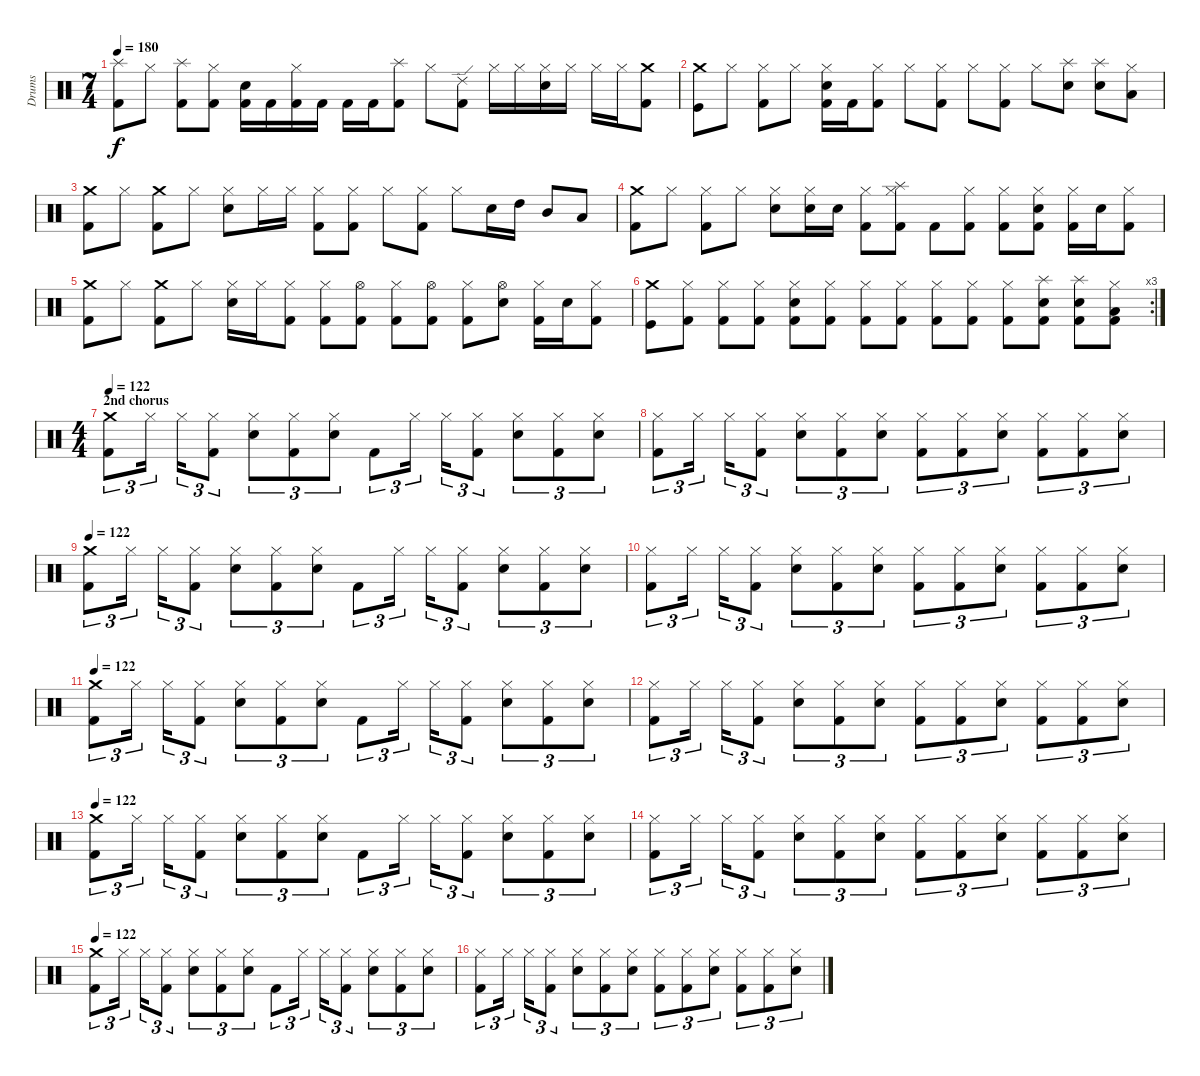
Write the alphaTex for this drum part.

\track ("Drums" "Drums") {instrument percussion}
\staff {score}
\articulation defaults
\ts (7 4)
\tempo 180
\clef neutral
\ks c
("Splash (hit)" "Kick (hit) 2").8{dy f} "Hi-Hat (closed)".8 ("Splash (hit)" "Kick (hit) 2").8 ("Hi-Hat (closed)" "Kick (hit) 2").8 ("Electric Snare (hit)" "Kick (hit) 2").16 "Kick (hit) 2".16 ("Hi-Hat (closed)" "Kick (hit) 2").16 "Kick (hit) 2".16 "Kick (hit) 2".16 "Kick (hit) 2".16 ("Splash (hit)" "Kick (hit) 2").8 "Hi-Hat (closed)".8 ("Ride (edge) 2" "Kick (hit) 2").8 "Hi-Hat (closed)".16 "Hi-Hat (closed)".16 ("Hi-Hat (closed)" "Electric Snare (hit)").16 "Hi-Hat (closed)".16 "Hi-Hat (closed)".16 "Hi-Hat (closed)".16 ("Crash medium (hit)" "Kick (hit) 2").8 |
("Crash medium (hit)" "Kick (hit)").8 "Hi-Hat (closed)".8 ("Hi-Hat (closed)" "Kick (hit) 2").8 "Hi-Hat (closed)".8 ("Hi-Hat (closed)" "Electric Snare (hit)" "Kick (hit) 2").16 "Kick (hit) 2".16 ("Hi-Hat (closed)" "Kick (hit) 2").8 "Hi-Hat (closed)".8 ("Hi-Hat (closed)" "Kick (hit) 2").8 "Hi-Hat (closed)".8 ("Hi-Hat (closed)" "Kick (hit) 2").8 "Hi-Hat (closed)".8 ("Splash (hit)" "Electric Snare (hit)").8 ("Splash (hit)" "Electric Snare (hit)").8 ("Hi-Hat (closed)" "Low Floor Tom (hit)").8 |
("Crash medium (hit)" "Kick (hit) 2").8 "Hi-Hat (closed)".8 ("Crash medium (hit)" "Kick (hit) 2").8 "Hi-Hat (closed)".8 ("Hi-Hat (closed)" "Electric Snare (hit)").8 "Hi-Hat (closed)".16 "Hi-Hat (closed)".16 ("Hi-Hat (closed)" "Kick (hit) 2").8 ("Hi-Hat (closed)" "Kick (hit) 2").8 "Hi-Hat (closed)".8 ("Hi-Hat (closed)" "Kick (hit) 2").8 "Hi-Hat (closed)".8 "Electric Snare (hit)".16 "High Tom (hit)".16 "Mid Tom (hit)".8 "Low Tom (hit)".8 |
("Crash medium (hit)" "Kick (hit) 2").8 "Hi-Hat (closed)".8 ("Hi-Hat (closed)" "Kick (hit) 2").8 "Hi-Hat (closed)".8 ("Hi-Hat (closed)" "Electric Snare (hit)").8 ("Hi-Hat (closed)" "Snare (hit) 2").16 "Electric Snare (hit)".16 ("Hi-Hat (closed)" "Kick (hit) 2").8 ("Hi-Hat (closed)" "Kick (hit) 2" "Splash (hit)").8 "Kick (hit) 2".8 ("Hi-Hat (closed)" "Kick (hit) 2").8 ("Hi-Hat (closed)" "Kick (hit) 2").8 ("Hi-Hat (closed)" "Electric Snare (hit)" "Kick (hit) 2").8 ("Hi-Hat (closed)" "Kick (hit) 2").16 "Electric Snare (hit)".16 ("Hi-Hat (closed)" "Kick (hit) 2").8 |
("Crash medium (hit)" "Kick (hit) 2").8 "Hi-Hat (closed)".8 ("Crash medium (hit)" "Kick (hit) 2").8 "Hi-Hat (closed)".8 ("Hi-Hat (closed)" "Electric Snare (hit)").16 "Hi-Hat (closed)".16 ("Hi-Hat (closed)" "Kick (hit) 2").8 ("Hi-Hat (closed)" "Kick (hit) 2").8 ("Hi-Hat (open)" "Kick (hit) 2").8 ("Hi-Hat (closed)" "Kick (hit) 2").8 ("Hi-Hat (open)" "Kick (hit) 2").8 ("Hi-Hat (closed)" "Kick (hit) 2").8 ("Hi-Hat (open)" "Electric Snare (hit)").8 ("Hi-Hat (closed)" "Kick (hit) 2").16 "Electric Snare (hit)".16 ("Hi-Hat (closed)" "Kick (hit) 2").8 |
\rc 3
("Crash medium (hit)" "Kick (hit)").8 ("Hi-Hat (closed)" "Kick (hit) 2").8 ("Hi-Hat (closed)" "Kick (hit) 2").8 ("Hi-Hat (closed)" "Kick (hit) 2").8 ("Hi-Hat (closed)" "Electric Snare (hit)" "Kick (hit) 2").8 ("Hi-Hat (closed)" "Kick (hit) 2").8 ("Hi-Hat (closed)" "Kick (hit) 2").8 ("Hi-Hat (closed)" "Kick (hit) 2").8 ("Hi-Hat (closed)" "Kick (hit) 2").8 ("Hi-Hat (closed)" "Kick (hit) 2").8 ("Hi-Hat (closed)" "Kick (hit) 2").8 ("Splash (hit)" "Electric Snare (hit)" "Kick (hit) 2").8 ("Splash (hit)" "Electric Snare (hit)" "Kick (hit) 2").8 ("Hi-Hat (closed)" "Low Floor Tom (hit)" "Kick (hit) 2").8 |
\ts (4 4)
\section ("" "2nd chorus")
\tempo 122
("Kick (hit) 2" "Crash medium (hit)").8{tu (3 2)} "Hi-Hat (closed)".16{tu (3 2)} "Hi-Hat (closed)".16{tu (3 2)} ("Hi-Hat (closed)" "Kick (hit) 2").8{tu (3 2)} ("Hi-Hat (closed)" "Electric Snare (hit)").8{tu (3 2)} ("Hi-Hat (closed)" "Kick (hit) 2").8{tu (3 2)} ("Hi-Hat (closed)" "Electric Snare (hit)").8{tu (3 2)} "Kick (hit) 2".8{tu (3 2)} "Hi-Hat (closed)".16{tu (3 2)} "Hi-Hat (closed)".16{tu (3 2)} ("Hi-Hat (closed)" "Kick (hit) 2").8{tu (3 2)} ("Hi-Hat (closed)" "Electric Snare (hit)").8{tu (3 2)} ("Hi-Hat (closed)" "Kick (hit) 2").8{tu (3 2)} ("Hi-Hat (closed)" "Electric Snare (hit)").8{tu (3 2)} |
("Hi-Hat (closed)" "Kick (hit) 2").8{tu (3 2)} "Hi-Hat (closed)".16{tu (3 2)} "Hi-Hat (closed)".16{tu (3 2)} ("Hi-Hat (closed)" "Kick (hit) 2").8{tu (3 2)} ("Hi-Hat (closed)" "Electric Snare (hit)").8{tu (3 2)} ("Hi-Hat (closed)" "Kick (hit) 2").8{tu (3 2)} ("Hi-Hat (closed)" "Electric Snare (hit)").8{tu (3 2)} ("Hi-Hat (closed)" "Kick (hit) 2").8{tu (3 2)} ("Hi-Hat (closed)" "Kick (hit) 2").8{tu (3 2)} ("Hi-Hat (closed)" "Electric Snare (hit)").8{tu (3 2)} ("Hi-Hat (closed)" "Kick (hit) 2").8{tu (3 2)} ("Hi-Hat (closed)" "Kick (hit) 2").8{tu (3 2)} ("Hi-Hat (closed)" "Electric Snare (hit)").8{tu (3 2)} |
\tempo 122
("Kick (hit) 2" "Crash medium (hit)").8{tu (3 2)} "Hi-Hat (closed)".16{tu (3 2)} "Hi-Hat (closed)".16{tu (3 2)} ("Hi-Hat (closed)" "Kick (hit) 2").8{tu (3 2)} ("Hi-Hat (closed)" "Electric Snare (hit)").8{tu (3 2)} ("Hi-Hat (closed)" "Kick (hit) 2").8{tu (3 2)} ("Hi-Hat (closed)" "Electric Snare (hit)").8{tu (3 2)} "Kick (hit) 2".8{tu (3 2)} "Hi-Hat (closed)".16{tu (3 2)} "Hi-Hat (closed)".16{tu (3 2)} ("Hi-Hat (closed)" "Kick (hit) 2").8{tu (3 2)} ("Hi-Hat (closed)" "Electric Snare (hit)").8{tu (3 2)} ("Hi-Hat (closed)" "Kick (hit) 2").8{tu (3 2)} ("Hi-Hat (closed)" "Electric Snare (hit)").8{tu (3 2)} |
("Hi-Hat (closed)" "Kick (hit) 2").8{tu (3 2)} "Hi-Hat (closed)".16{tu (3 2)} "Hi-Hat (closed)".16{tu (3 2)} ("Hi-Hat (closed)" "Kick (hit) 2").8{tu (3 2)} ("Hi-Hat (closed)" "Electric Snare (hit)").8{tu (3 2)} ("Hi-Hat (closed)" "Kick (hit) 2").8{tu (3 2)} ("Hi-Hat (closed)" "Electric Snare (hit)").8{tu (3 2)} ("Hi-Hat (closed)" "Kick (hit) 2").8{tu (3 2)} ("Hi-Hat (closed)" "Kick (hit) 2").8{tu (3 2)} ("Hi-Hat (closed)" "Electric Snare (hit)").8{tu (3 2)} ("Hi-Hat (closed)" "Kick (hit) 2").8{tu (3 2)} ("Hi-Hat (closed)" "Kick (hit) 2").8{tu (3 2)} ("Hi-Hat (closed)" "Electric Snare (hit)").8{tu (3 2)} |
\tempo 122
("Kick (hit) 2" "Crash medium (hit)").8{tu (3 2)} "Hi-Hat (closed)".16{tu (3 2)} "Hi-Hat (closed)".16{tu (3 2)} ("Hi-Hat (closed)" "Kick (hit) 2").8{tu (3 2)} ("Hi-Hat (closed)" "Electric Snare (hit)").8{tu (3 2)} ("Hi-Hat (closed)" "Kick (hit) 2").8{tu (3 2)} ("Hi-Hat (closed)" "Electric Snare (hit)").8{tu (3 2)} "Kick (hit) 2".8{tu (3 2)} "Hi-Hat (closed)".16{tu (3 2)} "Hi-Hat (closed)".16{tu (3 2)} ("Hi-Hat (closed)" "Kick (hit) 2").8{tu (3 2)} ("Hi-Hat (closed)" "Electric Snare (hit)").8{tu (3 2)} ("Hi-Hat (closed)" "Kick (hit) 2").8{tu (3 2)} ("Hi-Hat (closed)" "Electric Snare (hit)").8{tu (3 2)} |
("Hi-Hat (closed)" "Kick (hit) 2").8{tu (3 2)} "Hi-Hat (closed)".16{tu (3 2)} "Hi-Hat (closed)".16{tu (3 2)} ("Hi-Hat (closed)" "Kick (hit) 2").8{tu (3 2)} ("Hi-Hat (closed)" "Electric Snare (hit)").8{tu (3 2)} ("Hi-Hat (closed)" "Kick (hit) 2").8{tu (3 2)} ("Hi-Hat (closed)" "Electric Snare (hit)").8{tu (3 2)} ("Hi-Hat (closed)" "Kick (hit) 2").8{tu (3 2)} ("Hi-Hat (closed)" "Kick (hit) 2").8{tu (3 2)} ("Hi-Hat (closed)" "Electric Snare (hit)").8{tu (3 2)} ("Hi-Hat (closed)" "Kick (hit) 2").8{tu (3 2)} ("Hi-Hat (closed)" "Kick (hit) 2").8{tu (3 2)} ("Hi-Hat (closed)" "Electric Snare (hit)").8{tu (3 2)} |
\tempo 122
("Kick (hit) 2" "Crash medium (hit)").8{tu (3 2)} "Hi-Hat (closed)".16{tu (3 2)} "Hi-Hat (closed)".16{tu (3 2)} ("Hi-Hat (closed)" "Kick (hit) 2").8{tu (3 2)} ("Hi-Hat (closed)" "Electric Snare (hit)").8{tu (3 2)} ("Hi-Hat (closed)" "Kick (hit) 2").8{tu (3 2)} ("Hi-Hat (closed)" "Electric Snare (hit)").8{tu (3 2)} "Kick (hit) 2".8{tu (3 2)} "Hi-Hat (closed)".16{tu (3 2)} "Hi-Hat (closed)".16{tu (3 2)} ("Hi-Hat (closed)" "Kick (hit) 2").8{tu (3 2)} ("Hi-Hat (closed)" "Electric Snare (hit)").8{tu (3 2)} ("Hi-Hat (closed)" "Kick (hit) 2").8{tu (3 2)} ("Hi-Hat (closed)" "Electric Snare (hit)").8{tu (3 2)} |
("Hi-Hat (closed)" "Kick (hit) 2").8{tu (3 2)} "Hi-Hat (closed)".16{tu (3 2)} "Hi-Hat (closed)".16{tu (3 2)} ("Hi-Hat (closed)" "Kick (hit) 2").8{tu (3 2)} ("Hi-Hat (closed)" "Electric Snare (hit)").8{tu (3 2)} ("Hi-Hat (closed)" "Kick (hit) 2").8{tu (3 2)} ("Hi-Hat (closed)" "Electric Snare (hit)").8{tu (3 2)} ("Hi-Hat (closed)" "Kick (hit) 2").8{tu (3 2)} ("Hi-Hat (closed)" "Kick (hit) 2").8{tu (3 2)} ("Hi-Hat (closed)" "Electric Snare (hit)").8{tu (3 2)} ("Hi-Hat (closed)" "Kick (hit) 2").8{tu (3 2)} ("Hi-Hat (closed)" "Kick (hit) 2").8{tu (3 2)} ("Hi-Hat (closed)" "Electric Snare (hit)").8{tu (3 2)} |
\tempo 122
("Kick (hit) 2" "Crash medium (hit)").8{tu (3 2)} "Hi-Hat (closed)".16{tu (3 2)} "Hi-Hat (closed)".16{tu (3 2)} ("Hi-Hat (closed)" "Kick (hit) 2").8{tu (3 2)} ("Hi-Hat (closed)" "Electric Snare (hit)").8{tu (3 2)} ("Hi-Hat (closed)" "Kick (hit) 2").8{tu (3 2)} ("Hi-Hat (closed)" "Electric Snare (hit)").8{tu (3 2)} "Kick (hit) 2".8{tu (3 2)} "Hi-Hat (closed)".16{tu (3 2)} "Hi-Hat (closed)".16{tu (3 2)} ("Hi-Hat (closed)" "Kick (hit) 2").8{tu (3 2)} ("Hi-Hat (closed)" "Electric Snare (hit)").8{tu (3 2)} ("Hi-Hat (closed)" "Kick (hit) 2").8{tu (3 2)} ("Hi-Hat (closed)" "Electric Snare (hit)").8{tu (3 2)} |
("Hi-Hat (closed)" "Kick (hit) 2").8{tu (3 2)} "Hi-Hat (closed)".16{tu (3 2)} "Hi-Hat (closed)".16{tu (3 2)} ("Hi-Hat (closed)" "Kick (hit) 2").8{tu (3 2)} ("Hi-Hat (closed)" "Electric Snare (hit)").8{tu (3 2)} ("Hi-Hat (closed)" "Kick (hit) 2").8{tu (3 2)} ("Hi-Hat (closed)" "Electric Snare (hit)").8{tu (3 2)} ("Hi-Hat (closed)" "Kick (hit) 2").8{tu (3 2)} ("Hi-Hat (closed)" "Kick (hit) 2").8{tu (3 2)} ("Hi-Hat (closed)" "Electric Snare (hit)").8{tu (3 2)} ("Hi-Hat (closed)" "Kick (hit) 2").8{tu (3 2)} ("Hi-Hat (closed)" "Kick (hit) 2").8{tu (3 2)} ("Hi-Hat (closed)" "Electric Snare (hit)").8{tu (3 2)}
